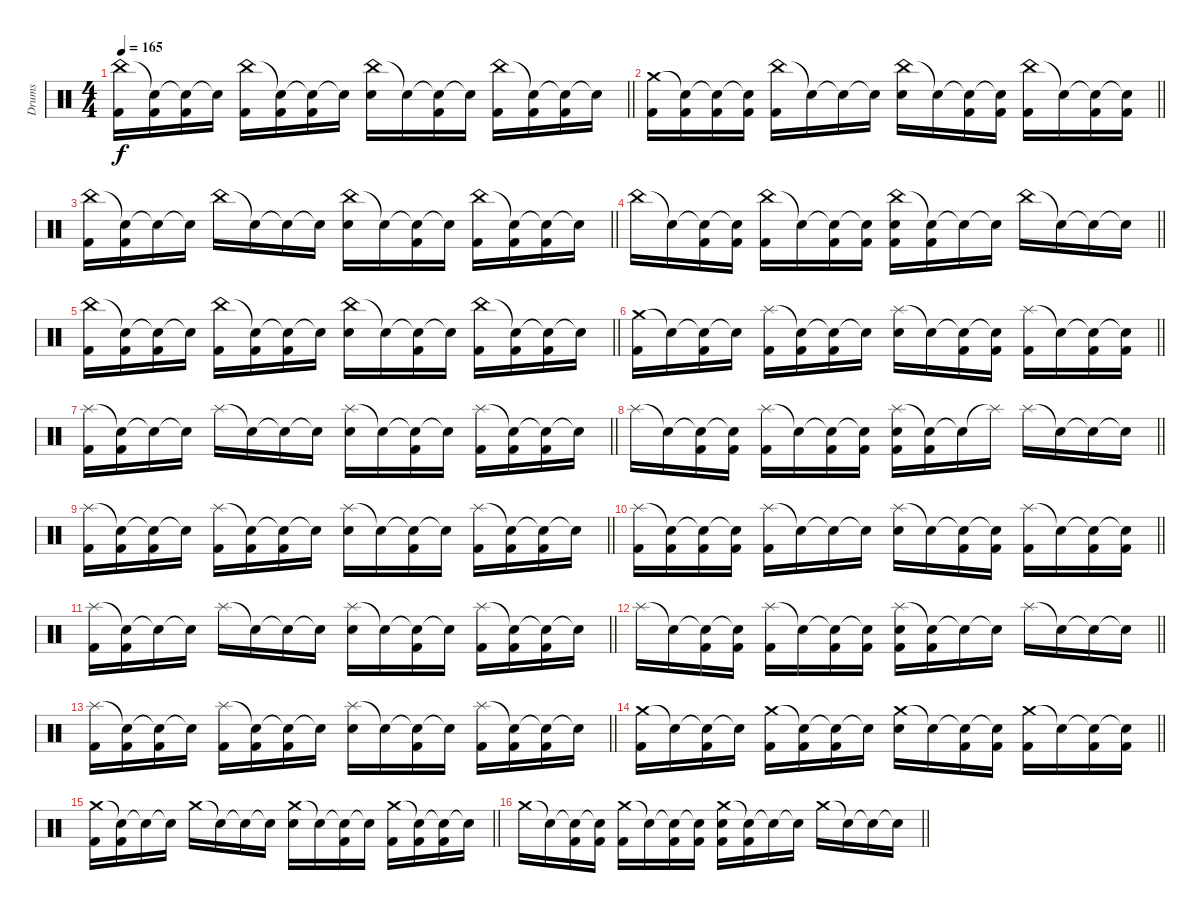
\track ("Drums" "Drums") {instrument percussion}
\staff {score}
\articulation defaults
\ts (4 4)
\tempo 165
\clef neutral
\barLineRight lightlight
\ks c
("China (hit)" "Kick (hit) 2").16{dy f} ("Snare (hit)"{t} "Kick (hit) 2").16 ("Snare (hit)"{t} "Kick (hit) 2").16 "Snare (hit)"{t}.16 ("China (hit)" "Kick (hit) 2").16 ("Snare (hit)"{t} "Kick (hit) 2").16 ("Snare (hit)"{t} "Kick (hit) 2").16 "Snare (hit)"{t}.16 ("China (hit)" "Electric Snare (hit)").16 "Snare (hit)"{t}.16 ("Snare (hit)"{t} "Kick (hit) 2").16 "Snare (hit)"{t}.16 ("China (hit)" "Kick (hit) 2").16 ("Snare (hit)"{t} "Kick (hit) 2").16 ("Snare (hit)"{t} "Kick (hit) 2").16 "Snare (hit)"{t}.16 |
\barLineRight lightlight
("Crash medium (hit)" "Kick (hit) 2").16 ("Snare (hit)"{t} "Kick (hit) 2").16 ("Snare (hit)"{t} "Kick (hit) 2").16 ("Snare (hit)"{t} "Kick (hit) 2").16 ("China (hit)" "Kick (hit) 2").16 "Snare (hit)"{t}.16 "Snare (hit)"{t}.16 "Snare (hit)"{t}.16 ("China (hit)" "Electric Snare (hit)").16 "Snare (hit)"{t}.16 ("Snare (hit)"{t} "Kick (hit) 2").16 ("Snare (hit)"{t} "Kick (hit) 2").16 ("China (hit)" "Kick (hit) 2").16 "Snare (hit)"{t}.16 ("Snare (hit)"{t} "Kick (hit) 2").16 ("Snare (hit)"{t} "Kick (hit) 2").16 |
\barLineRight lightlight
("China (hit)" "Kick (hit) 2").16 ("Snare (hit)"{t} "Kick (hit) 2").16 "Snare (hit)"{t}.16 "Snare (hit)"{t}.16 "China (hit)".16 "Snare (hit)"{t}.16 "Snare (hit)"{t}.16 "Snare (hit)"{t}.16 ("China (hit)" "Electric Snare (hit)").16 "Snare (hit)"{t}.16 ("Snare (hit)"{t} "Kick (hit) 2").16 "Snare (hit)"{t}.16 ("China (hit)" "Kick (hit) 2").16 ("Snare (hit)"{t} "Kick (hit) 2").16 ("Snare (hit)"{t} "Kick (hit) 2").16 "Snare (hit)"{t}.16 |
\barLineRight lightlight "China (hit)".16 "Snare (hit)"{t}.16
("Snare (hit)"{t} "Kick (hit) 2").16 ("Snare (hit)"{t} "Kick (hit) 2").16 ("China (hit)" "Kick (hit) 2").16 "Snare (hit)"{t}.16 ("Snare (hit)"{t} "Kick (hit) 2").16 ("Snare (hit)"{t} "Kick (hit) 2").16 ("China (hit)" "Electric Snare (hit)" "Kick (hit) 2").16 ("Snare (hit)"{t} "Kick (hit) 2").16 "Snare (hit)"{t}.16 "Snare (hit)"{t}.16 "China (hit)".16 "Snare (hit)"{t}.16 "Snare (hit)"{t}.16 "Snare (hit)"{t}.16 |
\barLineRight lightlight
("China (hit)" "Kick (hit) 2").16 ("Snare (hit)"{t} "Kick (hit) 2").16 ("Snare (hit)"{t} "Kick (hit) 2").16 "Snare (hit)"{t}.16 ("China (hit)" "Kick (hit) 2").16 ("Snare (hit)"{t} "Kick (hit) 2").16 ("Snare (hit)"{t} "Kick (hit) 2").16 "Snare (hit)"{t}.16 ("China (hit)" "Electric Snare (hit)").16 "Snare (hit)"{t}.16 ("Snare (hit)"{t} "Kick (hit) 2").16 "Snare (hit)"{t}.16 ("China (hit)" "Kick (hit) 2").16 ("Snare (hit)"{t} "Kick (hit) 2").16 ("Snare (hit)"{t} "Kick (hit) 2").16 "Snare (hit)"{t}.16 |
\barLineRight lightlight
("Crash medium (hit)" "Kick (hit) 2").16 "Snare (hit)"{t}.16 ("Snare (hit)"{t} "Kick (hit) 2").16 "Snare (hit)"{t}.16 ("Splash (hit)" "Kick (hit) 2").16 ("Snare (hit)"{t} "Kick (hit) 2").16 ("Snare (hit)"{t} "Kick (hit) 2").16 "Snare (hit)"{t}.16 ("Splash (hit)" "Electric Snare (hit)").16 "Snare (hit)"{t}.16 ("Snare (hit)"{t} "Kick (hit) 2").16 ("Snare (hit)"{t} "Kick (hit) 2").16 ("Splash (hit)" "Kick (hit) 2").16 "Snare (hit)"{t}.16 ("Snare (hit)"{t} "Kick (hit) 2").16 ("Snare (hit)"{t} "Kick (hit) 2").16 |
\barLineRight lightlight
("Splash (hit)" "Kick (hit) 2").16 ("Snare (hit)"{t} "Kick (hit) 2").16 "Snare (hit)"{t}.16 "Snare (hit)"{t}.16 "Splash (hit)".16 "Snare (hit)"{t}.16 "Snare (hit)"{t}.16 "Snare (hit)"{t}.16 ("Splash (hit)" "Electric Snare (hit)").16 "Snare (hit)"{t}.16 ("Snare (hit)"{t} "Kick (hit) 2").16 "Snare (hit)"{t}.16 ("Splash (hit)" "Kick (hit) 2").16 ("Snare (hit)"{t} "Kick (hit) 2").16 ("Snare (hit)"{t} "Kick (hit) 2").16 "Snare (hit)"{t}.16 |
\barLineRight lightlight "Splash (hit)".16 "Snare (hit)"{t}.16
("Snare (hit)"{t} "Kick (hit) 2").16 ("Snare (hit)"{t} "Kick (hit) 2").16 ("Splash (hit)" "Kick (hit) 2").16 "Snare (hit)"{t}.16 ("Snare (hit)"{t} "Kick (hit) 2").16 ("Snare (hit)"{t} "Kick (hit) 2").16 ("Splash (hit)" "Electric Snare (hit)" "Kick (hit) 2").16 ("Snare (hit)"{t} "Kick (hit) 2").16 "Snare (hit)"{t}.16 "Splash (hit)"{t}.16 "Splash (hit)".16 "Snare (hit)"{t}.16 "Snare (hit)"{t}.16 "Snare (hit)"{t}.16 |
\barLineRight lightlight
("Splash (hit)" "Kick (hit) 2").16 ("Snare (hit)"{t} "Kick (hit) 2").16 ("Snare (hit)"{t} "Kick (hit) 2").16 "Snare (hit)"{t}.16 ("Splash (hit)" "Kick (hit) 2").16 ("Snare (hit)"{t} "Kick (hit) 2").16 ("Snare (hit)"{t} "Kick (hit) 2").16 "Snare (hit)"{t}.16 ("Splash (hit)" "Electric Snare (hit)").16 "Snare (hit)"{t}.16 ("Snare (hit)"{t} "Kick (hit) 2").16 "Snare (hit)"{t}.16 ("Splash (hit)" "Kick (hit) 2").16 ("Snare (hit)"{t} "Kick (hit) 2").16 ("Snare (hit)"{t} "Kick (hit) 2").16 "Snare (hit)"{t}.16 |
\barLineRight lightlight
("Splash (hit)" "Kick (hit) 2").16 ("Snare (hit)"{t} "Kick (hit) 2").16 ("Snare (hit)"{t} "Kick (hit) 2").16 ("Snare (hit)"{t} "Kick (hit) 2").16 ("Splash (hit)" "Kick (hit) 2").16 "Snare (hit)"{t}.16 "Snare (hit)"{t}.16 "Snare (hit)"{t}.16 ("Splash (hit)" "Electric Snare (hit)").16 "Snare (hit)"{t}.16 ("Snare (hit)"{t} "Kick (hit) 2").16 ("Snare (hit)"{t} "Kick (hit) 2").16 ("Splash (hit)" "Kick (hit) 2").16 "Snare (hit)"{t}.16 ("Snare (hit)"{t} "Kick (hit) 2").16 ("Snare (hit)"{t} "Kick (hit) 2").16 |
\barLineRight lightlight
("Splash (hit)" "Kick (hit) 2").16 ("Snare (hit)"{t} "Kick (hit) 2").16 "Snare (hit)"{t}.16 "Snare (hit)"{t}.16 "Splash (hit)".16 "Snare (hit)"{t}.16 "Snare (hit)"{t}.16 "Snare (hit)"{t}.16 ("Splash (hit)" "Electric Snare (hit)").16 "Snare (hit)"{t}.16 ("Snare (hit)"{t} "Kick (hit) 2").16 "Snare (hit)"{t}.16 ("Splash (hit)" "Kick (hit) 2").16 ("Snare (hit)"{t} "Kick (hit) 2").16 ("Snare (hit)"{t} "Kick (hit) 2").16 "Snare (hit)"{t}.16 |
\barLineRight lightlight "Splash (hit)".16 "Snare (hit)"{t}.16
("Snare (hit)"{t} "Kick (hit) 2").16 ("Snare (hit)"{t} "Kick (hit) 2").16 ("Splash (hit)" "Kick (hit) 2").16 "Snare (hit)"{t}.16 ("Snare (hit)"{t} "Kick (hit) 2").16 ("Snare (hit)"{t} "Kick (hit) 2").16 ("Splash (hit)" "Electric Snare (hit)" "Kick (hit) 2").16 ("Snare (hit)"{t} "Kick (hit) 2").16 "Snare (hit)"{t}.16 "Snare (hit)"{t}.16 "Splash (hit)".16 "Snare (hit)"{t}.16 "Snare (hit)"{t}.16 "Snare (hit)"{t}.16 |
\barLineRight lightlight
("Splash (hit)" "Kick (hit) 2").16 ("Snare (hit)"{t} "Kick (hit) 2").16 ("Snare (hit)"{t} "Kick (hit) 2").16 "Snare (hit)"{t}.16 ("Splash (hit)" "Kick (hit) 2").16 ("Snare (hit)"{t} "Kick (hit) 2").16 ("Snare (hit)"{t} "Kick (hit) 2").16 "Snare (hit)"{t}.16 ("Splash (hit)" "Electric Snare (hit)").16 "Snare (hit)"{t}.16 ("Snare (hit)"{t} "Kick (hit) 2").16 "Snare (hit)"{t}.16 ("Splash (hit)" "Kick (hit) 2").16 ("Snare (hit)"{t} "Kick (hit) 2").16 ("Snare (hit)"{t} "Kick (hit) 2").16 "Snare (hit)"{t}.16 |
\barLineRight lightlight
("Crash medium (hit)" "Kick (hit) 2").16 "Snare (hit)"{t}.16 ("Snare (hit)"{t} "Kick (hit) 2").16 "Snare (hit)"{t}.16 ("Crash medium (hit)" "Kick (hit) 2").16 ("Snare (hit)"{t} "Kick (hit) 2").16 ("Snare (hit)"{t} "Kick (hit) 2").16 "Snare (hit)"{t}.16 ("Crash medium (hit)" "Electric Snare (hit)").16 "Snare (hit)"{t}.16 ("Snare (hit)"{t} "Kick (hit) 2").16 ("Snare (hit)"{t} "Kick (hit) 2").16 ("Crash medium (hit)" "Kick (hit) 2").16 "Snare (hit)"{t}.16 ("Snare (hit)"{t} "Kick (hit) 2").16 ("Snare (hit)"{t} "Kick (hit) 2").16 |
\barLineRight lightlight
("Crash medium (hit)" "Kick (hit) 2").16 ("Snare (hit)"{t} "Kick (hit) 2").16 "Snare (hit)"{t}.16 "Snare (hit)"{t}.16 "Crash medium (hit)".16 "Snare (hit)"{t}.16 "Snare (hit)"{t}.16 "Snare (hit)"{t}.16 ("Crash medium (hit)" "Electric Snare (hit)").16 "Snare (hit)"{t}.16 ("Snare (hit)"{t} "Kick (hit) 2").16 "Snare (hit)"{t}.16 ("Crash medium (hit)" "Kick (hit) 2").16 ("Snare (hit)"{t} "Kick (hit) 2").16 ("Snare (hit)"{t} "Kick (hit) 2").16 "Snare (hit)"{t}.16 |
\barLineRight lightlight "Crash medium (hit)".16 "Snare (hit)"{t}.16
("Snare (hit)"{t} "Kick (hit) 2").16 ("Snare (hit)"{t} "Kick (hit) 2").16 ("Crash medium (hit)" "Kick (hit) 2").16 "Snare (hit)"{t}.16 ("Snare (hit)"{t} "Kick (hit) 2").16 ("Snare (hit)"{t} "Kick (hit) 2").16 ("Crash medium (hit)" "Electric Snare (hit)" "Kick (hit) 2").16 ("Snare (hit)"{t} "Kick (hit) 2").16 "Snare (hit)"{t}.16 "Snare (hit)"{t}.16 "Crash medium (hit)".16 "Snare (hit)"{t}.16 "Snare (hit)"{t}.16 "Snare (hit)"{t}.16
